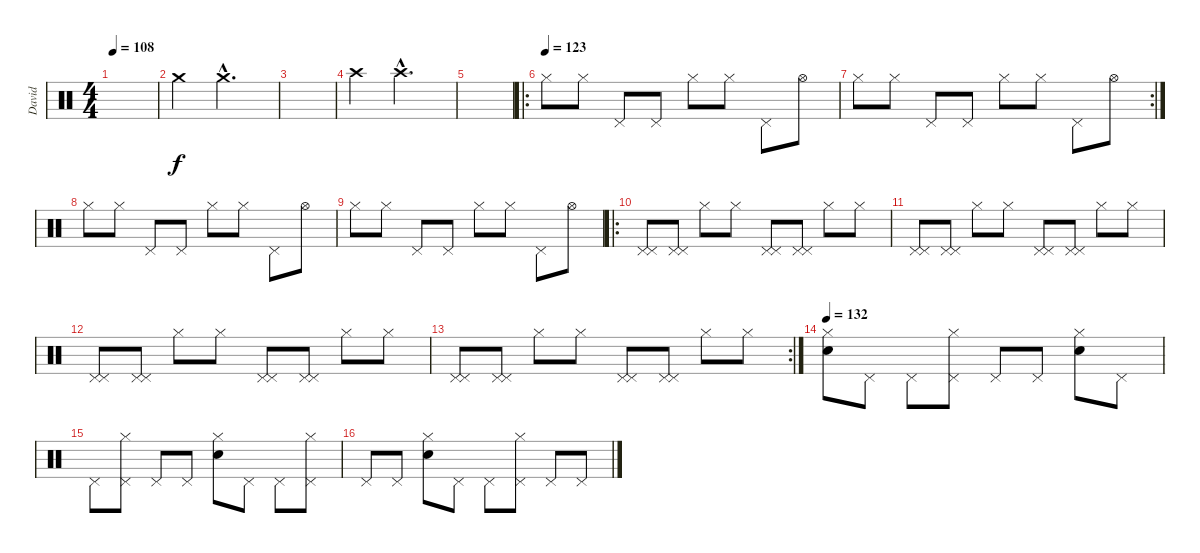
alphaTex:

\track ("David" "David") {instrument percussion}
\staff {score}
\articulation defaults
\ts (4 4)
\tempo 108
\clef neutral
\ks c
|
"Crash medium (hit)".4 "Crash medium (hit)"{hac}.2{d} |
|
"Crash high (hit)".4 "Crash high (hit)"{hac}.2{d} |
|
\ro
\tempo (123)
"Hi-Hat (closed)".8 "Hi-Hat (closed)".8 "Pedal Hi-Hat (hit)".8 "Pedal Hi-Hat (hit)".8 "Hi-Hat (closed)".8 "Hi-Hat (closed)".8 "Pedal Hi-Hat (hit)".8 "Hi-Hat (open)".8 |
\rc 2 "Hi-Hat (closed)".8 "Hi-Hat (closed)".8 "Pedal Hi-Hat (hit)".8 "Pedal Hi-Hat (hit)".8 "Hi-Hat (closed)".8 "Hi-Hat (closed)".8 "Pedal Hi-Hat (hit)".8 "Hi-Hat (open)".8
|
"Hi-Hat (closed)".8 "Hi-Hat (closed)".8 "Pedal Hi-Hat (hit)".8 "Pedal Hi-Hat (hit)".8 "Hi-Hat (closed)".8 "Hi-Hat (closed)".8 "Pedal Hi-Hat (hit)".8 "Hi-Hat (open)".8 |
"Hi-Hat (closed)".8 "Hi-Hat (closed)".8 "Pedal Hi-Hat (hit)".8 "Pedal Hi-Hat (hit)".8 "Hi-Hat (closed)".8 "Hi-Hat (closed)".8 "Pedal Hi-Hat (hit)".8 "Hi-Hat (open)".8 |
\ro
("Pedal Hi-Hat (hit)" "Pedal Hi-Hat (hit)").8 ("Pedal Hi-Hat (hit)" "Pedal Hi-Hat (hit)").8 "Hi-Hat (closed)".8 "Hi-Hat (closed)".8 ("Pedal Hi-Hat (hit)" "Pedal Hi-Hat (hit)").8 ("Pedal Hi-Hat (hit)" "Pedal Hi-Hat (hit)").8 "Hi-Hat (closed)".8 "Hi-Hat (closed)".8 |
("Pedal Hi-Hat (hit)" "Pedal Hi-Hat (hit)").8 ("Pedal Hi-Hat (hit)" "Pedal Hi-Hat (hit)").8 "Hi-Hat (closed)".8 "Hi-Hat (closed)".8 ("Pedal Hi-Hat (hit)" "Pedal Hi-Hat (hit)").8 ("Pedal Hi-Hat (hit)" "Pedal Hi-Hat (hit)").8 "Hi-Hat (closed)".8 "Hi-Hat (closed)".8 |
("Pedal Hi-Hat (hit)" "Pedal Hi-Hat (hit)").8 ("Pedal Hi-Hat (hit)" "Pedal Hi-Hat (hit)").8 "Hi-Hat (closed)".8 "Hi-Hat (closed)".8 ("Pedal Hi-Hat (hit)" "Pedal Hi-Hat (hit)").8 ("Pedal Hi-Hat (hit)" "Pedal Hi-Hat (hit)").8 "Hi-Hat (closed)".8 "Hi-Hat (closed)".8 |
\rc 2
("Pedal Hi-Hat (hit)" "Pedal Hi-Hat (hit)").8 ("Pedal Hi-Hat (hit)" "Pedal Hi-Hat (hit)").8 "Hi-Hat (closed)".8 "Hi-Hat (closed)".8 ("Pedal Hi-Hat (hit)" "Pedal Hi-Hat (hit)").8 ("Pedal Hi-Hat (hit)" "Pedal Hi-Hat (hit)").8 "Hi-Hat (closed)".8 "Hi-Hat (closed)".8 |
\tempo 132
("Hi-Hat (closed)" "Electric Snare (hit)").8 "Pedal Hi-Hat (hit)".8 "Pedal Hi-Hat (hit)".8 ("Hi-Hat (closed)" "Pedal Hi-Hat (hit)").8 "Pedal Hi-Hat (hit)".8 "Pedal Hi-Hat (hit)".8 ("Hi-Hat (closed)" "Electric Snare (hit)").8 "Pedal Hi-Hat (hit)".8 |
"Pedal Hi-Hat (hit)".8 ("Hi-Hat (closed)" "Pedal Hi-Hat (hit)").8 "Pedal Hi-Hat (hit)".8 "Pedal Hi-Hat (hit)".8 ("Hi-Hat (closed)" "Electric Snare (hit)").8 "Pedal Hi-Hat (hit)".8 "Pedal Hi-Hat (hit)".8 ("Hi-Hat (closed)" "Pedal Hi-Hat (hit)").8 |
"Pedal Hi-Hat (hit)".8 "Pedal Hi-Hat (hit)".8 ("Hi-Hat (closed)" "Electric Snare (hit)").8 "Pedal Hi-Hat (hit)".8 "Pedal Hi-Hat (hit)".8 ("Hi-Hat (closed)" "Pedal Hi-Hat (hit)").8 "Pedal Hi-Hat (hit)".8 "Pedal Hi-Hat (hit)".8
